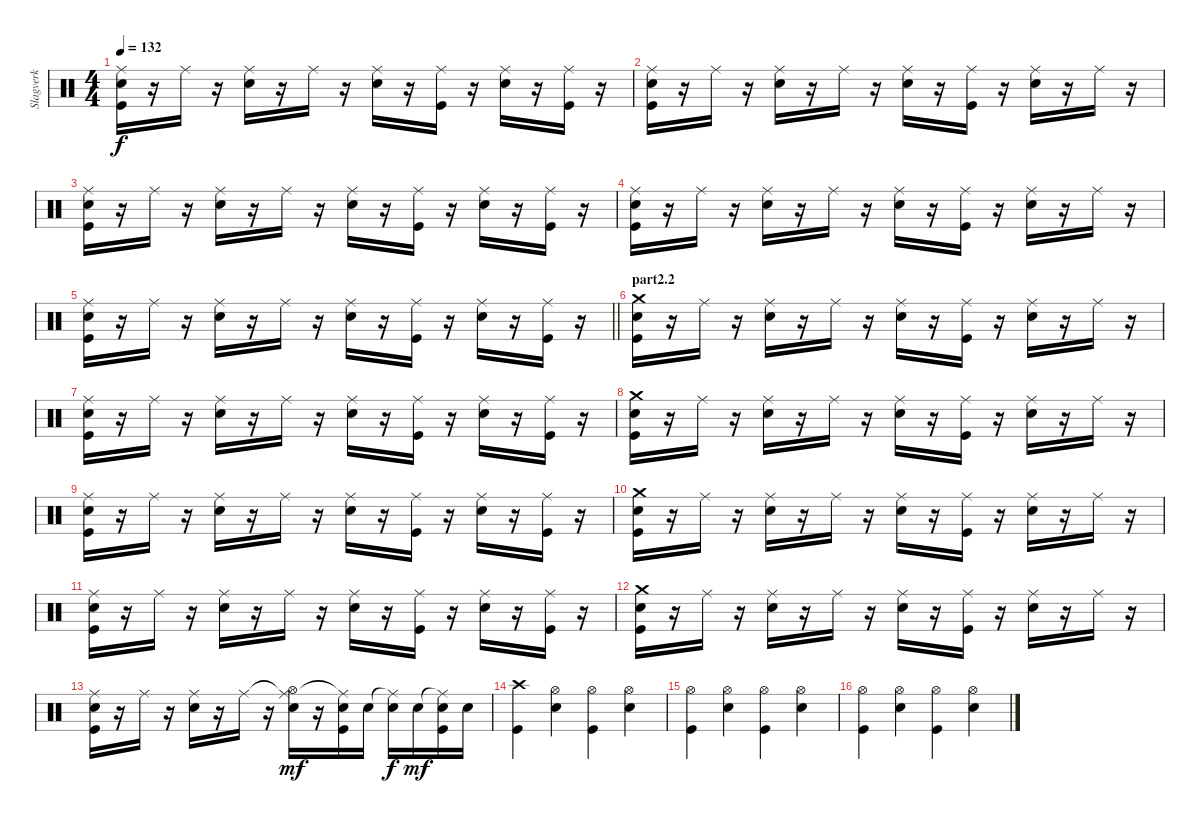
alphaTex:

\track ("Slagverk" "Slagverk") {instrument percussion}
\staff
\articulation defaults
\ts (4 4)
\tempo 132
\clef neutral
\ks c
("Ride (middle)" "Snare (hit) 2" "Kick (hit)").16{dy f} r.16 "Ride (middle)".16 r.16 ("Ride (middle)" "Snare (hit) 2").16 r.16 "Ride (middle)".16 r.16 ("Ride (middle)" "Snare (hit) 2").16 r.16 ("Ride (middle)" "Kick (hit)").16 r.16 ("Ride (middle)" "Snare (hit) 2").16 r.16 ("Ride (middle)" "Kick (hit)").16 r.16 |
("Ride (middle)" "Snare (hit) 2" "Kick (hit)").16 r.16 "Ride (middle)".16 r.16 ("Ride (middle)" "Snare (hit) 2").16 r.16 "Ride (middle)".16 r.16 ("Ride (middle)" "Snare (hit) 2").16 r.16 ("Ride (middle)" "Kick (hit)").16 r.16 ("Ride (middle)" "Snare (hit) 2").16 r.16 "Ride (middle)".16 r.16 |
("Ride (middle)" "Snare (hit) 2" "Kick (hit)").16 r.16 "Ride (middle)".16 r.16 ("Ride (middle)" "Snare (hit) 2").16 r.16 "Ride (middle)".16 r.16 ("Ride (middle)" "Snare (hit) 2").16 r.16 ("Ride (middle)" "Kick (hit)").16 r.16 ("Ride (middle)" "Snare (hit) 2").16 r.16 ("Ride (middle)" "Kick (hit)").16 r.16 |
("Ride (middle)" "Snare (hit) 2" "Kick (hit)").16 r.16 "Ride (middle)".16 r.16 ("Ride (middle)" "Snare (hit) 2").16 r.16 "Ride (middle)".16 r.16 ("Ride (middle)" "Snare (hit) 2").16 r.16 ("Ride (middle)" "Kick (hit)").16 r.16 ("Ride (middle)" "Snare (hit) 2").16 r.16 "Ride (middle)".16 r.16 |
\barLineRight lightlight
("Ride (middle)" "Snare (hit) 2" "Kick (hit)").16 r.16 "Ride (middle)".16 r.16 ("Ride (middle)" "Snare (hit) 2").16 r.16 "Ride (middle)".16 r.16 ("Ride (middle)" "Snare (hit) 2").16 r.16 ("Ride (middle)" "Kick (hit)").16 r.16 ("Ride (middle)" "Snare (hit) 2").16 r.16 ("Ride (middle)" "Kick (hit)").16 r.16 |
\section ("" "part2.2")
("Crash medium (hit)" "Snare (hit) 2" "Kick (hit)").16 r.16 "Ride (middle)".16 r.16 ("Ride (middle)" "Snare (hit) 2").16 r.16 "Ride (middle)".16 r.16 ("Ride (middle)" "Snare (hit) 2").16 r.16 ("Ride (middle)" "Kick (hit)").16 r.16 ("Ride (middle)" "Snare (hit) 2").16 r.16 "Ride (middle)".16 r.16 |
("Ride (middle)" "Snare (hit) 2" "Kick (hit)").16 r.16 "Ride (middle)".16 r.16 ("Ride (middle)" "Snare (hit) 2").16 r.16 "Ride (middle)".16 r.16 ("Ride (middle)" "Snare (hit) 2").16 r.16 ("Ride (middle)" "Kick (hit)").16 r.16 ("Ride (middle)" "Snare (hit) 2").16 r.16 ("Ride (middle)" "Kick (hit)").16 r.16 |
("Crash medium (hit)" "Snare (hit) 2" "Kick (hit)").16 r.16 "Ride (middle)".16 r.16 ("Ride (middle)" "Snare (hit) 2").16 r.16 "Ride (middle)".16 r.16 ("Ride (middle)" "Snare (hit) 2").16 r.16 ("Ride (middle)" "Kick (hit)").16 r.16 ("Ride (middle)" "Snare (hit) 2").16 r.16 "Ride (middle)".16 r.16 |
("Ride (middle)" "Snare (hit) 2" "Kick (hit)").16 r.16 "Ride (middle)".16 r.16 ("Ride (middle)" "Snare (hit) 2").16 r.16 "Ride (middle)".16 r.16 ("Ride (middle)" "Snare (hit) 2").16 r.16 ("Ride (middle)" "Kick (hit)").16 r.16 ("Ride (middle)" "Snare (hit) 2").16 r.16 ("Ride (middle)" "Kick (hit)").16 r.16 |
("Crash medium (hit)" "Snare (hit) 2" "Kick (hit)").16 r.16 "Ride (middle)".16 r.16 ("Ride (middle)" "Snare (hit) 2").16 r.16 "Ride (middle)".16 r.16 ("Ride (middle)" "Snare (hit) 2").16 r.16 ("Ride (middle)" "Kick (hit)").16 r.16 ("Ride (middle)" "Snare (hit) 2").16 r.16 "Ride (middle)".16 r.16 |
("Ride (middle)" "Snare (hit) 2" "Kick (hit)").16 r.16 "Ride (middle)".16 r.16 ("Ride (middle)" "Snare (hit) 2").16 r.16 "Ride (middle)".16 r.16 ("Ride (middle)" "Snare (hit) 2").16 r.16 ("Ride (middle)" "Kick (hit)").16 r.16 ("Ride (middle)" "Snare (hit) 2").16 r.16 ("Ride (middle)" "Kick (hit)").16 r.16 |
("Crash medium (hit)" "Snare (hit) 2" "Kick (hit)").16 r.16 "Ride (middle)".16 r.16 ("Ride (middle)" "Snare (hit) 2").16 r.16 "Ride (middle)".16 r.16 ("Ride (middle)" "Snare (hit) 2").16 r.16 ("Ride (middle)" "Kick (hit)").16 r.16 ("Ride (middle)" "Snare (hit) 2").16 r.16 "Ride (middle)".16 r.16 |
("Ride (middle)" "Snare (hit) 2" "Kick (hit)").16 r.16 "Ride (middle)".16 r.16 ("Ride (middle)" "Snare (hit) 2").16 r.16 "Ride (middle)".16 r.16 ("Ride (middle)"{t} "Hi-Hat (open)" "Snare (hit) 2").16{dy mf} r.16 ("Ride (middle)"{t} "Snare (hit) 2" "Kick (hit)").16 "Snare (hit) 2".16 ("Ride (middle)"{t} "Snare (hit) 2").16{dy f} "Snare (hit) 2".16{dy mf} ("Ride (middle)"{t} "Snare (hit) 2" "Kick (hit)").16 "Snare (hit) 2".16 |
("Crash high (hit)" "Kick (hit)").4 ("Hi-Hat (open)" "Snare (hit) 2").4 ("Hi-Hat (open)" "Kick (hit)").4 ("Hi-Hat (open)" "Snare (hit) 2").4 |
("Hi-Hat (open)" "Kick (hit)").4 ("Hi-Hat (open)" "Snare (hit) 2").4 ("Hi-Hat (open)" "Kick (hit)").4 ("Hi-Hat (open)" "Snare (hit) 2").4 |
("Hi-Hat (open)" "Kick (hit)").4 ("Hi-Hat (open)" "Snare (hit) 2").4 ("Hi-Hat (open)" "Kick (hit)").4 ("Hi-Hat (open)" "Snare (hit) 2").4
